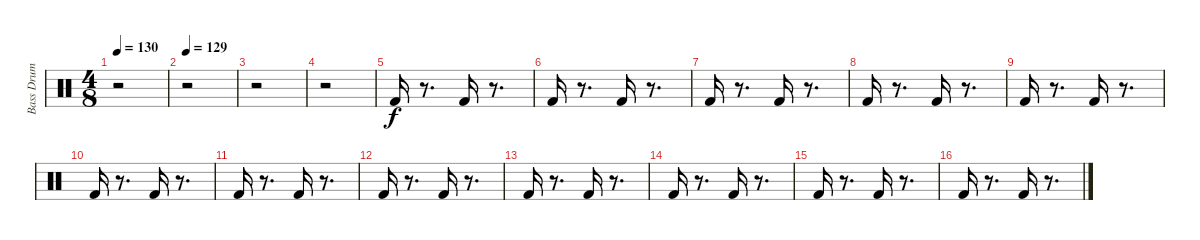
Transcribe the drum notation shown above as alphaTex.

\track ("Bass Drum" "Bass Drum") {instrument percussion}
\staff {score}
\articulation defaults
\ts (4 8)
\tempo 130
\clef neutral
\ks c
r.2{dy f} |
\tempo 129
r.2 |
r.2 |
r.2 |
"Kick (hit) 2".16 r.8{d} "Kick (hit) 2".16 r.8{d} |
"Kick (hit) 2".16 r.8{d} "Kick (hit) 2".16 r.8{d} |
"Kick (hit) 2".16 r.8{d} "Kick (hit) 2".16 r.8{d} |
"Kick (hit) 2".16 r.8{d} "Kick (hit) 2".16 r.8{d} |
"Kick (hit) 2".16 r.8{d} "Kick (hit) 2".16 r.8{d} |
"Kick (hit) 2".16 r.8{d} "Kick (hit) 2".16 r.8{d} |
"Kick (hit) 2".16 r.8{d} "Kick (hit) 2".16 r.8{d} |
"Kick (hit) 2".16 r.8{d} "Kick (hit) 2".16 r.8{d} |
"Kick (hit) 2".16 r.8{d} "Kick (hit) 2".16 r.8{d} |
"Kick (hit) 2".16 r.8{d} "Kick (hit) 2".16 r.8{d} |
"Kick (hit) 2".16 r.8{d} "Kick (hit) 2".16 r.8{d} |
"Kick (hit) 2".16 r.8{d} "Kick (hit) 2".16 r.8{d}
